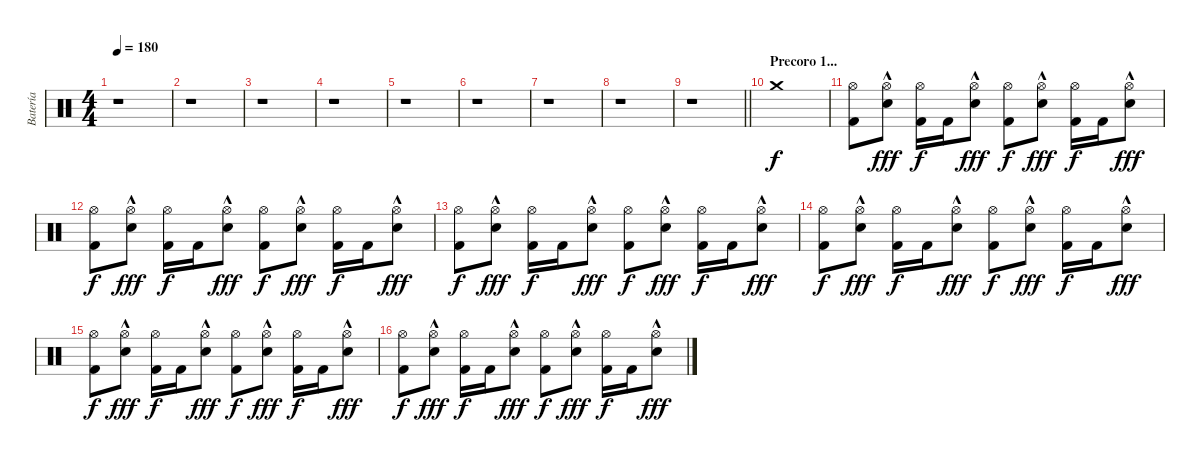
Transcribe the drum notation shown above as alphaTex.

\track ("Batería" "Batería") {instrument percussion}
\staff {score}
\articulation defaults
\ts (4 4)
\tempo 180
\clef neutral
\ks c
r.1{dy f} |
r.1 |
r.1 |
r.1 |
r.1 |
r.1 |
r.1 |
r.1 |
\barLineRight lightlight
r.1 |
\section ("" "Precoro 1...")
"Crash medium (hit)".1 |
("Hi-Hat (open)" "Kick (hit) 2").8 ("Snare (hit) 2"{hac} "Hi-Hat (open)").8{dy fff} ("Hi-Hat (open)" "Kick (hit) 2").16{dy f} "Kick (hit) 2".16 ("Snare (hit) 2"{hac} "Hi-Hat (open)").8{dy fff} ("Hi-Hat (open)" "Kick (hit) 2").8{dy f} ("Snare (hit) 2"{hac} "Hi-Hat (open)").8{dy fff} ("Hi-Hat (open)" "Kick (hit) 2").16{dy f} "Kick (hit) 2".16 ("Snare (hit) 2"{hac} "Hi-Hat (open)").8{dy fff} |
("Hi-Hat (open)" "Kick (hit) 2").8{dy f} ("Snare (hit) 2"{hac} "Hi-Hat (open)").8{dy fff} ("Hi-Hat (open)" "Kick (hit) 2").16{dy f} "Kick (hit) 2".16 ("Snare (hit) 2"{hac} "Hi-Hat (open)").8{dy fff} ("Hi-Hat (open)" "Kick (hit) 2").8{dy f} ("Snare (hit) 2"{hac} "Hi-Hat (open)").8{dy fff} ("Hi-Hat (open)" "Kick (hit) 2").16{dy f} "Kick (hit) 2".16 ("Snare (hit) 2"{hac} "Hi-Hat (open)").8{dy fff} |
("Hi-Hat (open)" "Kick (hit) 2").8{dy f} ("Snare (hit) 2"{hac} "Hi-Hat (open)").8{dy fff} ("Hi-Hat (open)" "Kick (hit) 2").16{dy f} "Kick (hit) 2".16 ("Snare (hit) 2"{hac} "Hi-Hat (open)").8{dy fff} ("Hi-Hat (open)" "Kick (hit) 2").8{dy f} ("Snare (hit) 2"{hac} "Hi-Hat (open)").8{dy fff} ("Hi-Hat (open)" "Kick (hit) 2").16{dy f} "Kick (hit) 2".16 ("Snare (hit) 2"{hac} "Hi-Hat (open)").8{dy fff} |
("Hi-Hat (open)" "Kick (hit) 2").8{dy f} ("Snare (hit) 2"{hac} "Hi-Hat (open)").8{dy fff} ("Hi-Hat (open)" "Kick (hit) 2").16{dy f} "Kick (hit) 2".16 ("Snare (hit) 2"{hac} "Hi-Hat (open)").8{dy fff} ("Hi-Hat (open)" "Kick (hit) 2").8{dy f} ("Snare (hit) 2"{hac} "Hi-Hat (open)").8{dy fff} ("Hi-Hat (open)" "Kick (hit) 2").16{dy f} "Kick (hit) 2".16 ("Snare (hit) 2"{hac} "Hi-Hat (open)").8{dy fff} |
("Hi-Hat (open)" "Kick (hit) 2").8{dy f} ("Snare (hit) 2"{hac} "Hi-Hat (open)").8{dy fff} ("Hi-Hat (open)" "Kick (hit) 2").16{dy f} "Kick (hit) 2".16 ("Snare (hit) 2"{hac} "Hi-Hat (open)").8{dy fff} ("Hi-Hat (open)" "Kick (hit) 2").8{dy f} ("Snare (hit) 2"{hac} "Hi-Hat (open)").8{dy fff} ("Hi-Hat (open)" "Kick (hit) 2").16{dy f} "Kick (hit) 2".16 ("Snare (hit) 2"{hac} "Hi-Hat (open)").8{dy fff} |
("Hi-Hat (open)" "Kick (hit) 2").8{dy f} ("Snare (hit) 2"{hac} "Hi-Hat (open)").8{dy fff} ("Hi-Hat (open)" "Kick (hit) 2").16{dy f} "Kick (hit) 2".16 ("Snare (hit) 2"{hac} "Hi-Hat (open)").8{dy fff} ("Hi-Hat (open)" "Kick (hit) 2").8{dy f} ("Snare (hit) 2"{hac} "Hi-Hat (open)").8{dy fff} ("Hi-Hat (open)" "Kick (hit) 2").16{dy f} "Kick (hit) 2".16 ("Snare (hit) 2"{hac} "Hi-Hat (open)").8{dy fff}
